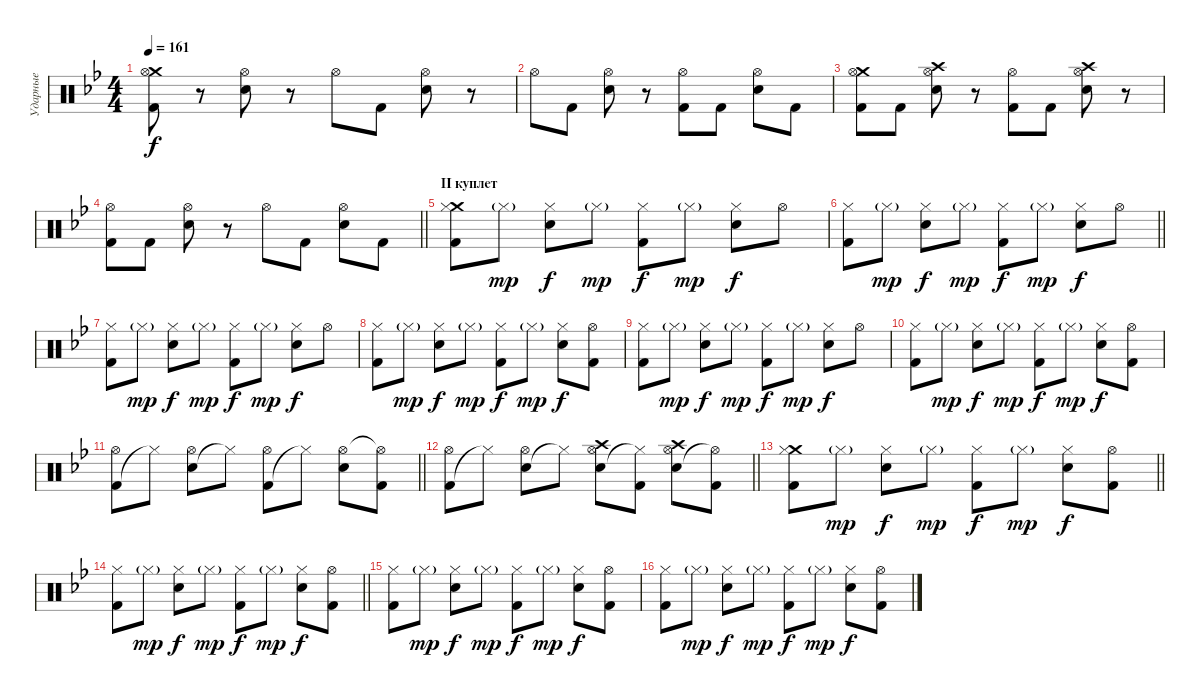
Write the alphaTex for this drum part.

\track ("Ударные" "Ударные") {instrument percussion}
\staff {score}
\articulation defaults
\ts (4 4)
\section ("" "")
\tempo 161
\clef neutral
\ks gminor
("Crash medium (hit)" "Kick (hit) 2" "Hi-Hat (open)").8{dy f} r.8 ("Electric Snare (hit)" "Hi-Hat (open)").8 r.8 "Hi-Hat (open)".8 "Kick (hit) 2".8 ("Electric Snare (hit)" "Hi-Hat (open)").8 r.8 |
"Hi-Hat (open)".8 "Kick (hit) 2".8 ("Electric Snare (hit)" "Hi-Hat (open)").8 r.8 ("Kick (hit) 2" "Hi-Hat (open)").8 "Kick (hit) 2".8 ("Electric Snare (hit)" "Hi-Hat (open)").8 "Kick (hit) 2".8 |
("Crash medium (hit)" "Kick (hit) 2" "Hi-Hat (open)").8 "Kick (hit) 2".8 ("Crash high (hit)" "Electric Snare (hit)" "Hi-Hat (open)").8 r.8 ("Kick (hit) 2" "Hi-Hat (open)").8 "Kick (hit) 2".8 ("Crash high (hit)" "Electric Snare (hit)" "Hi-Hat (open)").8 r.8 |
\barLineRight lightlight
("Kick (hit) 2" "Hi-Hat (open)").8 "Kick (hit) 2".8 ("Electric Snare (hit)" "Hi-Hat (open)").8 r.8 "Hi-Hat (open)".8 "Kick (hit) 2".8 ("Electric Snare (hit)" "Hi-Hat (open)").8 "Kick (hit) 2".8 |
\section ("" "II куплет")
("Crash medium (hit)" "Kick (hit) 2" "Hi-Hat (closed)").8 "Hi-Hat (closed)"{g}.8{dy mp} ("Electric Snare (hit)" "Hi-Hat (closed)").8{dy f} "Hi-Hat (closed)"{g}.8{dy mp} ("Kick (hit) 2" "Hi-Hat (closed)").8{dy f} "Hi-Hat (closed)"{g}.8{dy mp} ("Electric Snare (hit)" "Hi-Hat (closed)").8{dy f} "Hi-Hat (open)".8 |
\barLineRight lightlight
("Kick (hit) 2" "Hi-Hat (closed)").8 "Hi-Hat (closed)"{g}.8{dy mp} ("Electric Snare (hit)" "Hi-Hat (closed)").8{dy f} "Hi-Hat (closed)"{g}.8{dy mp} ("Kick (hit) 2" "Hi-Hat (closed)").8{dy f} "Hi-Hat (closed)"{g}.8{dy mp} ("Electric Snare (hit)" "Hi-Hat (closed)").8{dy f} "Hi-Hat (open)".8 |
("Kick (hit) 2" "Hi-Hat (closed)").8 "Hi-Hat (closed)"{g}.8{dy mp} ("Electric Snare (hit)" "Hi-Hat (closed)").8{dy f} "Hi-Hat (closed)"{g}.8{dy mp} ("Kick (hit) 2" "Hi-Hat (closed)").8{dy f} "Hi-Hat (closed)"{g}.8{dy mp} ("Electric Snare (hit)" "Hi-Hat (closed)").8{dy f} "Hi-Hat (open)".8 |
("Kick (hit) 2" "Hi-Hat (closed)").8 "Hi-Hat (closed)"{g}.8{dy mp} ("Electric Snare (hit)" "Hi-Hat (closed)").8{dy f} "Hi-Hat (closed)"{g}.8{dy mp} ("Kick (hit) 2" "Hi-Hat (closed)").8{dy f} "Hi-Hat (closed)"{g}.8{dy mp} ("Electric Snare (hit)" "Hi-Hat (closed)").8{dy f} ("Kick (hit) 2" "Hi-Hat (open)").8 |
("Kick (hit) 2" "Hi-Hat (closed)").8 "Hi-Hat (closed)"{g}.8{dy mp} ("Electric Snare (hit)" "Hi-Hat (closed)").8{dy f} "Hi-Hat (closed)"{g}.8{dy mp} ("Kick (hit) 2" "Hi-Hat (closed)").8{dy f} "Hi-Hat (closed)"{g}.8{dy mp} ("Electric Snare (hit)" "Hi-Hat (closed)").8{dy f} "Hi-Hat (open)".8 |
("Kick (hit) 2" "Hi-Hat (closed)").8 "Hi-Hat (closed)"{g}.8{dy mp} ("Electric Snare (hit)" "Hi-Hat (closed)").8{dy f} "Hi-Hat (closed)"{g}.8{dy mp} ("Kick (hit) 2" "Hi-Hat (closed)").8{dy f} "Hi-Hat (closed)"{g}.8{dy mp} ("Electric Snare (hit)" "Hi-Hat (closed)").8{dy f} ("Kick (hit) 2" "Hi-Hat (open)").8 |
\barLineRight lightlight
("Kick (hit) 2" "Hi-Hat (open)").8 "Hi-Hat (closed)"{t}.8 ("Electric Snare (hit)" "Hi-Hat (open)").8 "Hi-Hat (closed)"{t}.8 ("Kick (hit) 2" "Hi-Hat (open)").8 "Hi-Hat (closed)"{t}.8 ("Electric Snare (hit)" "Hi-Hat (open)").8 ("Kick (hit) 2" "Hi-Hat (open)"{t}).8 |
\barLineRight lightlight
("Kick (hit) 2" "Hi-Hat (open)").8 "Hi-Hat (closed)"{t}.8 ("Electric Snare (hit)" "Hi-Hat (open)").8 "Hi-Hat (closed)"{t}.8 ("Crash high (hit)" "Electric Snare (hit)" "Hi-Hat (open)").8 ("Kick (hit) 2" "Hi-Hat (closed)"{t}).8 ("Crash high (hit)" "Electric Snare (hit)" "Hi-Hat (open)").8 ("Kick (hit) 2" "Hi-Hat (open)"{t}).8 |
\barLineRight lightlight
("Crash medium (hit)" "Kick (hit) 2" "Hi-Hat (closed)").8 "Hi-Hat (closed)"{g}.8{dy mp} ("Electric Snare (hit)" "Hi-Hat (closed)").8{dy f} "Hi-Hat (closed)"{g}.8{dy mp} ("Kick (hit) 2" "Hi-Hat (closed)").8{dy f} "Hi-Hat (closed)"{g}.8{dy mp} ("Electric Snare (hit)" "Hi-Hat (closed)").8{dy f} ("Kick (hit) 2" "Hi-Hat (open)").8 |
\barLineRight lightlight
("Kick (hit) 2" "Hi-Hat (closed)").8 "Hi-Hat (closed)"{g}.8{dy mp} ("Electric Snare (hit)" "Hi-Hat (closed)").8{dy f} "Hi-Hat (closed)"{g}.8{dy mp} ("Kick (hit) 2" "Hi-Hat (closed)").8{dy f} "Hi-Hat (closed)"{g}.8{dy mp} ("Electric Snare (hit)" "Hi-Hat (closed)").8{dy f} ("Kick (hit) 2" "Hi-Hat (open)").8 |
("Kick (hit) 2" "Hi-Hat (closed)").8 "Hi-Hat (closed)"{g}.8{dy mp} ("Electric Snare (hit)" "Hi-Hat (closed)").8{dy f} "Hi-Hat (closed)"{g}.8{dy mp} ("Kick (hit) 2" "Hi-Hat (closed)").8{dy f} "Hi-Hat (closed)"{g}.8{dy mp} ("Electric Snare (hit)" "Hi-Hat (closed)").8{dy f} ("Kick (hit) 2" "Hi-Hat (open)").8 |
("Kick (hit) 2" "Hi-Hat (closed)").8 "Hi-Hat (closed)"{g}.8{dy mp} ("Electric Snare (hit)" "Hi-Hat (closed)").8{dy f} "Hi-Hat (closed)"{g}.8{dy mp} ("Kick (hit) 2" "Hi-Hat (closed)").8{dy f} "Hi-Hat (closed)"{g}.8{dy mp} ("Electric Snare (hit)" "Hi-Hat (closed)").8{dy f} ("Kick (hit) 2" "Hi-Hat (open)").8
